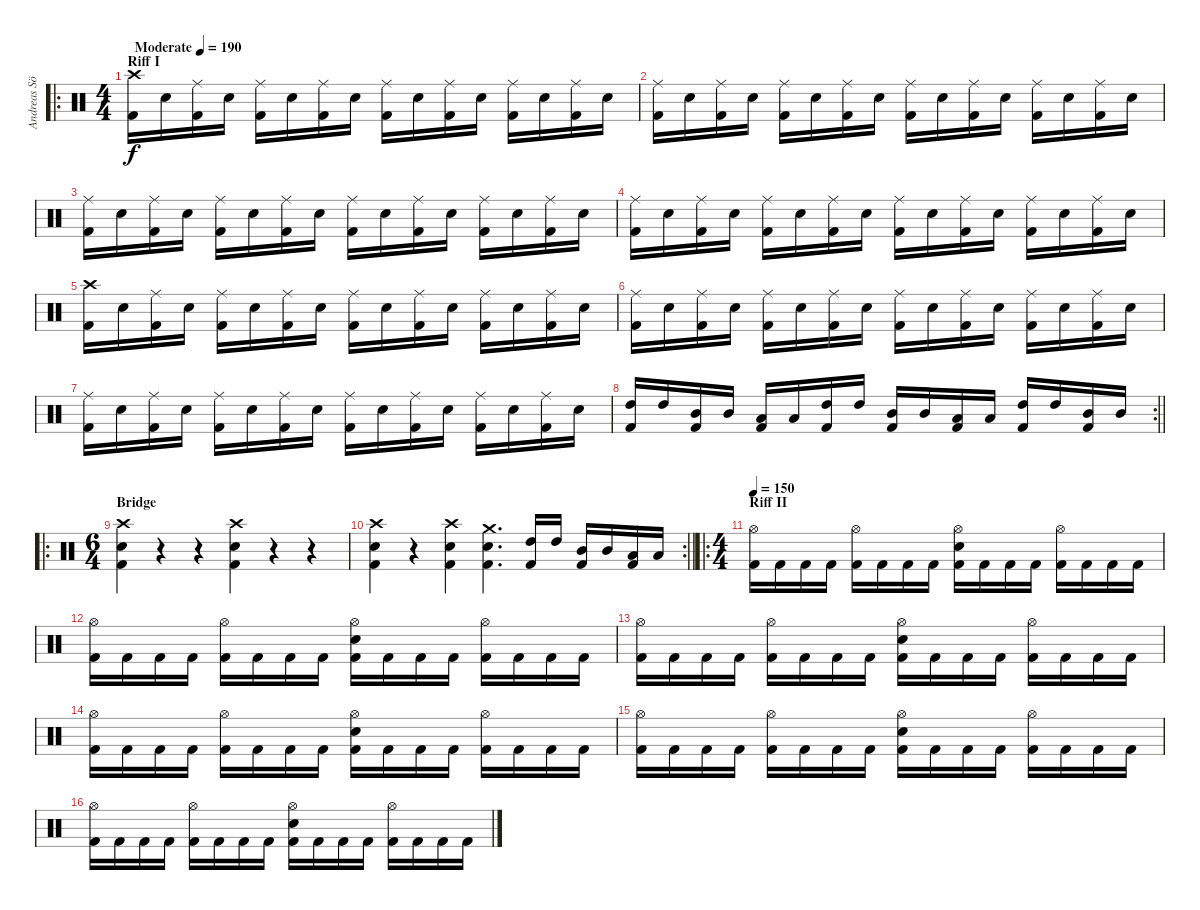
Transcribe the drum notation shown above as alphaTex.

\track ("Andreas Söderlund" "Andreas Sö") {instrument percussion}
\staff {score}
\articulation defaults
\ro
\ts (4 4)
\section ("" "Riff I")
\tempo (190 "Moderate")
\clef neutral
\ks c
("Crash high (hit)" "Kick (hit) 2").16{dy f} "Electric Snare (hit)".16 ("Ride (middle)" "Kick (hit) 2").16 "Electric Snare (hit)".16 ("Ride (middle)" "Kick (hit) 2").16 "Electric Snare (hit)".16 ("Ride (middle)" "Kick (hit) 2").16 "Electric Snare (hit)".16 ("Ride (middle)" "Kick (hit) 2").16 "Electric Snare (hit)".16 ("Ride (middle)" "Kick (hit) 2").16 "Electric Snare (hit)".16 ("Ride (middle)" "Kick (hit) 2").16 "Electric Snare (hit)".16 ("Ride (middle)" "Kick (hit) 2").16 "Electric Snare (hit)".16 |
("Ride (middle)" "Kick (hit) 2").16 "Electric Snare (hit)".16 ("Ride (middle)" "Kick (hit) 2").16 "Electric Snare (hit)".16 ("Ride (middle)" "Kick (hit) 2").16 "Electric Snare (hit)".16 ("Ride (middle)" "Kick (hit) 2").16 "Electric Snare (hit)".16 ("Ride (middle)" "Kick (hit) 2").16 "Electric Snare (hit)".16 ("Ride (middle)" "Kick (hit) 2").16 "Electric Snare (hit)".16 ("Ride (middle)" "Kick (hit) 2").16 "Electric Snare (hit)".16 ("Ride (middle)" "Kick (hit) 2").16 "Electric Snare (hit)".16 |
("Ride (middle)" "Kick (hit) 2").16 "Electric Snare (hit)".16 ("Ride (middle)" "Kick (hit) 2").16 "Electric Snare (hit)".16 ("Ride (middle)" "Kick (hit) 2").16 "Electric Snare (hit)".16 ("Ride (middle)" "Kick (hit) 2").16 "Electric Snare (hit)".16 ("Ride (middle)" "Kick (hit) 2").16 "Electric Snare (hit)".16 ("Ride (middle)" "Kick (hit) 2").16 "Electric Snare (hit)".16 ("Ride (middle)" "Kick (hit) 2").16 "Electric Snare (hit)".16 ("Ride (middle)" "Kick (hit) 2").16 "Electric Snare (hit)".16 |
("Ride (middle)" "Kick (hit) 2").16 "Electric Snare (hit)".16 ("Ride (middle)" "Kick (hit) 2").16 "Electric Snare (hit)".16 ("Ride (middle)" "Kick (hit) 2").16 "Electric Snare (hit)".16 ("Ride (middle)" "Kick (hit) 2").16 "Electric Snare (hit)".16 ("Ride (middle)" "Kick (hit) 2").16 "Electric Snare (hit)".16 ("Ride (middle)" "Kick (hit) 2").16 "Electric Snare (hit)".16 ("Ride (middle)" "Kick (hit) 2").16 "Electric Snare (hit)".16 ("Ride (middle)" "Kick (hit) 2").16 "Electric Snare (hit)".16 |
("Crash high (hit)" "Kick (hit) 2").16 "Electric Snare (hit)".16 ("Ride (middle)" "Kick (hit) 2").16 "Electric Snare (hit)".16 ("Ride (middle)" "Kick (hit) 2").16 "Electric Snare (hit)".16 ("Ride (middle)" "Kick (hit) 2").16 "Electric Snare (hit)".16 ("Ride (middle)" "Kick (hit) 2").16 "Electric Snare (hit)".16 ("Ride (middle)" "Kick (hit) 2").16 "Electric Snare (hit)".16 ("Ride (middle)" "Kick (hit) 2").16 "Electric Snare (hit)".16 ("Ride (middle)" "Kick (hit) 2").16 "Electric Snare (hit)".16 |
("Ride (middle)" "Kick (hit) 2").16 "Electric Snare (hit)".16 ("Ride (middle)" "Kick (hit) 2").16 "Electric Snare (hit)".16 ("Ride (middle)" "Kick (hit) 2").16 "Electric Snare (hit)".16 ("Ride (middle)" "Kick (hit) 2").16 "Electric Snare (hit)".16 ("Ride (middle)" "Kick (hit) 2").16 "Electric Snare (hit)".16 ("Ride (middle)" "Kick (hit) 2").16 "Electric Snare (hit)".16 ("Ride (middle)" "Kick (hit) 2").16 "Electric Snare (hit)".16 ("Ride (middle)" "Kick (hit) 2").16 "Electric Snare (hit)".16 |
("Ride (middle)" "Kick (hit) 2").16 "Electric Snare (hit)".16 ("Ride (middle)" "Kick (hit) 2").16 "Electric Snare (hit)".16 ("Ride (middle)" "Kick (hit) 2").16 "Electric Snare (hit)".16 ("Ride (middle)" "Kick (hit) 2").16 "Electric Snare (hit)".16 ("Ride (middle)" "Kick (hit) 2").16 "Electric Snare (hit)".16 ("Ride (middle)" "Kick (hit) 2").16 "Electric Snare (hit)".16 ("Ride (middle)" "Kick (hit) 2").16 "Electric Snare (hit)".16 ("Ride (middle)" "Kick (hit) 2").16 "Electric Snare (hit)".16 |
\rc 2
\barLineRight lightlight
("High Tom (hit)" "Kick (hit) 2").16 "High Tom (hit)".16 ("Mid Tom (hit)" "Kick (hit) 2").16 "Mid Tom (hit)".16 ("Low Tom (hit)" "Kick (hit) 2").16 "Low Tom (hit)".16 ("High Tom (hit)" "Kick (hit) 2").16 "High Tom (hit)".16 ("Mid Tom (hit)" "Kick (hit) 2").16 "Mid Tom (hit)".16 ("Low Tom (hit)" "Kick (hit) 2").16 "Low Tom (hit)".16 ("High Tom (hit)" "Kick (hit) 2").16 "High Tom (hit)".16 ("Mid Tom (hit)" "Kick (hit) 2").16 "Mid Tom (hit)".16 |
\ro
\ts (6 4)
\section ("" "Bridge")
("Crash high (hit)" "Electric Snare (hit)" "Kick (hit) 2").4 r.4 r.4 ("Crash high (hit)" "Electric Snare (hit)" "Kick (hit) 2").4 r.4 r.4 |
\rc 2
\barLineRight lightlight
("Crash high (hit)" "Electric Snare (hit)" "Kick (hit) 2").4 r.4 ("Crash high (hit)" "Electric Snare (hit)" "Kick (hit) 2").4 ("Crash medium (hit)" "Electric Snare (hit)" "Kick (hit) 2").4{d} ("High Tom (hit)" "Kick (hit) 2").16 "High Tom (hit)".16 ("Mid Tom (hit)" "Kick (hit) 2").16 "Mid Tom (hit)".16 ("Low Tom (hit)" "Kick (hit) 2").16 "Low Tom (hit)".16 |
\ro
\ts (4 4)
\section ("" "Riff II")
\tempo 150
("Hi-Hat (open)" "Kick (hit) 2").16 "Kick (hit) 2".16 "Kick (hit) 2".16 "Kick (hit) 2".16 ("Hi-Hat (open)" "Kick (hit) 2").16 "Kick (hit) 2".16 "Kick (hit) 2".16 "Kick (hit) 2".16 ("Hi-Hat (open)" "Electric Snare (hit)" "Kick (hit) 2").16 "Kick (hit) 2".16 "Kick (hit) 2".16 "Kick (hit) 2".16 ("Hi-Hat (open)" "Kick (hit) 2").16 "Kick (hit) 2".16 "Kick (hit) 2".16 "Kick (hit) 2".16 |
("Hi-Hat (open)" "Kick (hit) 2").16 "Kick (hit) 2".16 "Kick (hit) 2".16 "Kick (hit) 2".16 ("Hi-Hat (open)" "Kick (hit) 2").16 "Kick (hit) 2".16 "Kick (hit) 2".16 "Kick (hit) 2".16 ("Hi-Hat (open)" "Electric Snare (hit)" "Kick (hit) 2").16 "Kick (hit) 2".16 "Kick (hit) 2".16 "Kick (hit) 2".16 ("Hi-Hat (open)" "Kick (hit) 2").16 "Kick (hit) 2".16 "Kick (hit) 2".16 "Kick (hit) 2".16 |
("Hi-Hat (open)" "Kick (hit) 2").16 "Kick (hit) 2".16 "Kick (hit) 2".16 "Kick (hit) 2".16 ("Hi-Hat (open)" "Kick (hit) 2").16 "Kick (hit) 2".16 "Kick (hit) 2".16 "Kick (hit) 2".16 ("Hi-Hat (open)" "Electric Snare (hit)" "Kick (hit) 2").16 "Kick (hit) 2".16 "Kick (hit) 2".16 "Kick (hit) 2".16 ("Hi-Hat (open)" "Kick (hit) 2").16 "Kick (hit) 2".16 "Kick (hit) 2".16 "Kick (hit) 2".16 |
("Hi-Hat (open)" "Kick (hit) 2").16 "Kick (hit) 2".16 "Kick (hit) 2".16 "Kick (hit) 2".16 ("Hi-Hat (open)" "Kick (hit) 2").16 "Kick (hit) 2".16 "Kick (hit) 2".16 "Kick (hit) 2".16 ("Hi-Hat (open)" "Electric Snare (hit)" "Kick (hit) 2").16 "Kick (hit) 2".16 "Kick (hit) 2".16 "Kick (hit) 2".16 ("Hi-Hat (open)" "Kick (hit) 2").16 "Kick (hit) 2".16 "Kick (hit) 2".16 "Kick (hit) 2".16 |
("Hi-Hat (open)" "Kick (hit) 2").16 "Kick (hit) 2".16 "Kick (hit) 2".16 "Kick (hit) 2".16 ("Hi-Hat (open)" "Kick (hit) 2").16 "Kick (hit) 2".16 "Kick (hit) 2".16 "Kick (hit) 2".16 ("Hi-Hat (open)" "Electric Snare (hit)" "Kick (hit) 2").16 "Kick (hit) 2".16 "Kick (hit) 2".16 "Kick (hit) 2".16 ("Hi-Hat (open)" "Kick (hit) 2").16 "Kick (hit) 2".16 "Kick (hit) 2".16 "Kick (hit) 2".16 |
("Hi-Hat (open)" "Kick (hit) 2").16 "Kick (hit) 2".16 "Kick (hit) 2".16 "Kick (hit) 2".16 ("Hi-Hat (open)" "Kick (hit) 2").16 "Kick (hit) 2".16 "Kick (hit) 2".16 "Kick (hit) 2".16 ("Hi-Hat (open)" "Electric Snare (hit)" "Kick (hit) 2").16 "Kick (hit) 2".16 "Kick (hit) 2".16 "Kick (hit) 2".16 ("Hi-Hat (open)" "Kick (hit) 2").16 "Kick (hit) 2".16 "Kick (hit) 2".16 "Kick (hit) 2".16
